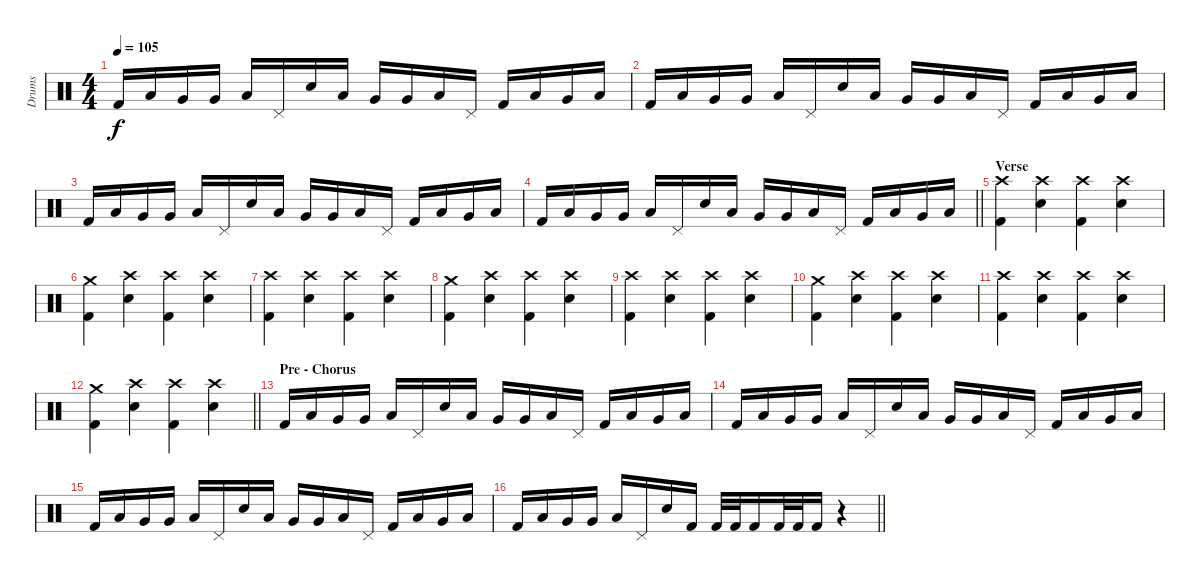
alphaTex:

\track ("Drums" "Drums") {instrument percussion}
\staff {score}
\articulation defaults
\ts (4 4)
\tempo 105
\clef neutral
\ks c "Kick (hit) 2".16{dy f} "Low Tom (hit)".16 "Very Low Tom (hit)".16 "Very Low Tom (hit)".16 "Low Floor Tom (hit)".16 "Pedal Hi-Hat (hit)".16 "Electric Snare (hit)".16 "Low Tom (hit)".16 "Very Low Tom (hit)".16 "Very Low Tom (hit)".16 "Low Floor Tom (hit)".16 "Pedal Hi-Hat (hit)".16 "Kick (hit) 2".16 "Low Tom (hit)".16 "Very Low Tom (hit)".16 "Low Floor Tom (hit)".16
|
"Kick (hit) 2".16 "Low Tom (hit)".16 "Very Low Tom (hit)".16 "Very Low Tom (hit)".16 "Low Floor Tom (hit)".16 "Pedal Hi-Hat (hit)".16 "Electric Snare (hit)".16 "Low Tom (hit)".16 "Very Low Tom (hit)".16 "Very Low Tom (hit)".16 "Low Floor Tom (hit)".16 "Pedal Hi-Hat (hit)".16 "Kick (hit) 2".16 "Low Tom (hit)".16 "Very Low Tom (hit)".16 "Low Floor Tom (hit)".16 |
"Kick (hit) 2".16 "Low Tom (hit)".16 "Very Low Tom (hit)".16 "Very Low Tom (hit)".16 "Low Floor Tom (hit)".16 "Pedal Hi-Hat (hit)".16 "Electric Snare (hit)".16 "Low Tom (hit)".16 "Very Low Tom (hit)".16 "Very Low Tom (hit)".16 "Low Floor Tom (hit)".16 "Pedal Hi-Hat (hit)".16 "Kick (hit) 2".16 "Low Tom (hit)".16 "Very Low Tom (hit)".16 "Low Floor Tom (hit)".16 |
\barLineRight lightlight "Kick (hit) 2".16 "Low Tom (hit)".16 "Very Low Tom (hit)".16 "Very Low Tom (hit)".16 "Low Floor Tom (hit)".16 "Pedal Hi-Hat (hit)".16 "Electric Snare (hit)".16 "Low Tom (hit)".16 "Very Low Tom (hit)".16 "Very Low Tom (hit)".16 "Low Floor Tom (hit)".16 "Pedal Hi-Hat (hit)".16 "Kick (hit) 2".16 "Low Tom (hit)".16 "Very Low Tom (hit)".16 "Low Floor Tom (hit)".16
|
\section ("" "Verse")
("Crash high (hit)" "Kick (hit) 2").4 ("Crash high (hit)" "Electric Snare (hit)").4 ("Crash high (hit)" "Kick (hit) 2").4 ("Crash high (hit)" "Electric Snare (hit)").4 |
("Crash medium (hit)" "Kick (hit) 2").4 ("Crash high (hit)" "Electric Snare (hit)").4 ("Crash high (hit)" "Kick (hit) 2").4 ("Crash high (hit)" "Electric Snare (hit)").4 |
("Crash high (hit)" "Kick (hit) 2").4 ("Crash high (hit)" "Electric Snare (hit)").4 ("Crash high (hit)" "Kick (hit) 2").4 ("Crash high (hit)" "Electric Snare (hit)").4 |
("Crash medium (hit)" "Kick (hit) 2").4 ("Crash high (hit)" "Electric Snare (hit)").4 ("Crash high (hit)" "Kick (hit) 2").4 ("Crash high (hit)" "Electric Snare (hit)").4 |
("Crash high (hit)" "Kick (hit) 2").4 ("Crash high (hit)" "Electric Snare (hit)").4 ("Crash high (hit)" "Kick (hit) 2").4 ("Crash high (hit)" "Electric Snare (hit)").4 |
("Crash medium (hit)" "Kick (hit) 2").4 ("Crash high (hit)" "Electric Snare (hit)").4 ("Crash high (hit)" "Kick (hit) 2").4 ("Crash high (hit)" "Electric Snare (hit)").4 |
("Crash high (hit)" "Kick (hit) 2").4 ("Crash high (hit)" "Electric Snare (hit)").4 ("Crash high (hit)" "Kick (hit) 2").4 ("Crash high (hit)" "Electric Snare (hit)").4 |
\barLineRight lightlight
("Crash medium (hit)" "Kick (hit) 2").4 ("Crash high (hit)" "Electric Snare (hit)").4 ("Crash high (hit)" "Kick (hit) 2").4 ("Crash high (hit)" "Electric Snare (hit)").4 |
\section ("" "Pre - Chorus")
"Kick (hit) 2".16 "Low Tom (hit)".16 "Very Low Tom (hit)".16 "Very Low Tom (hit)".16 "Low Floor Tom (hit)".16 "Pedal Hi-Hat (hit)".16 "Electric Snare (hit)".16 "Low Tom (hit)".16 "Very Low Tom (hit)".16 "Very Low Tom (hit)".16 "Low Floor Tom (hit)".16 "Pedal Hi-Hat (hit)".16 "Kick (hit) 2".16 "Low Tom (hit)".16 "Very Low Tom (hit)".16 "Low Floor Tom (hit)".16 |
"Kick (hit) 2".16 "Low Tom (hit)".16 "Very Low Tom (hit)".16 "Very Low Tom (hit)".16 "Low Floor Tom (hit)".16 "Pedal Hi-Hat (hit)".16 "Electric Snare (hit)".16 "Low Tom (hit)".16 "Very Low Tom (hit)".16 "Very Low Tom (hit)".16 "Low Floor Tom (hit)".16 "Pedal Hi-Hat (hit)".16 "Kick (hit) 2".16 "Low Tom (hit)".16 "Very Low Tom (hit)".16 "Low Floor Tom (hit)".16 |
"Kick (hit) 2".16 "Low Tom (hit)".16 "Very Low Tom (hit)".16 "Very Low Tom (hit)".16 "Low Floor Tom (hit)".16 "Pedal Hi-Hat (hit)".16 "Electric Snare (hit)".16 "Low Tom (hit)".16 "Very Low Tom (hit)".16 "Very Low Tom (hit)".16 "Low Floor Tom (hit)".16 "Pedal Hi-Hat (hit)".16 "Kick (hit) 2".16 "Low Tom (hit)".16 "Very Low Tom (hit)".16 "Low Floor Tom (hit)".16 |
\barLineRight lightlight "Kick (hit) 2".16 "Low Tom (hit)".16 "Very Low Tom (hit)".16 "Very Low Tom (hit)".16 "Low Floor Tom (hit)".16 "Pedal Hi-Hat (hit)".16 "Electric Snare (hit)".16 "Kick (hit) 2".16 "Kick (hit) 2".32 "Kick (hit) 2".32 "Kick (hit) 2".16 "Kick (hit) 2".32 "Kick (hit) 2".32 "Kick (hit) 2".16
r.4
